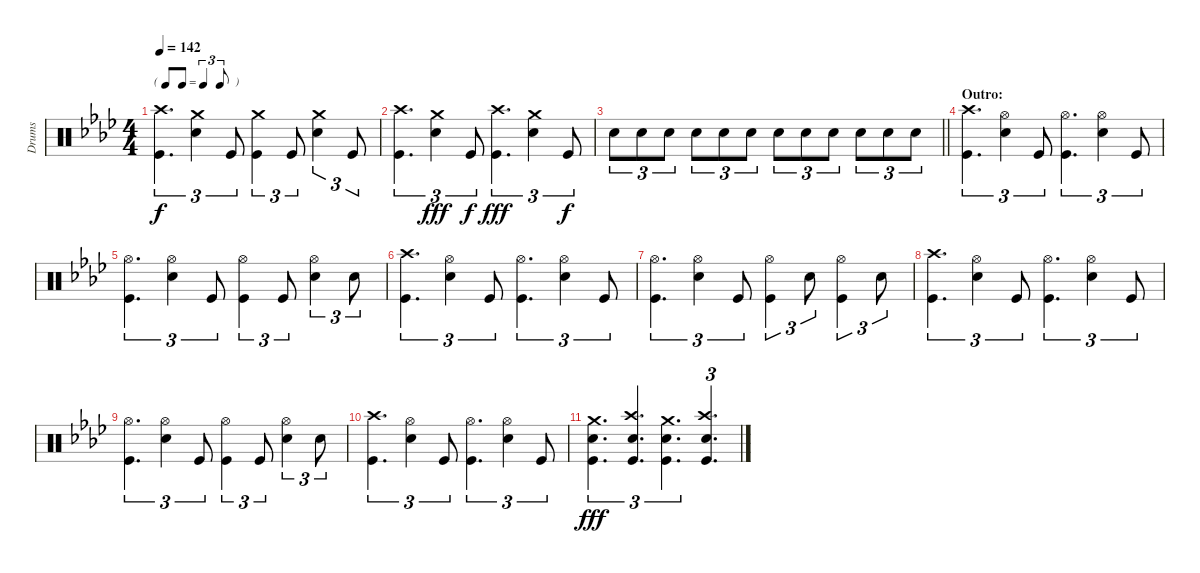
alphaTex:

\track ("Drums" "Drums") {instrument percussion}
\staff {score}
\articulation defaults
\ts (4 4)
\tf triplet8th
\tempo 142
\clef neutral
\ks ab
("Kick (hit)" "Crash high (hit)").4{d tu (3 2) dy f} ("Snare (hit) 2" "Crash medium (hit)").4{tu (3 2)} "Kick (hit)".8{tu (3 2)} ("Kick (hit)" "Crash medium (hit)").4{tu (3 2)} "Kick (hit)".8{tu (3 2)} ("Snare (hit) 2" "Crash medium (hit)").4{tu (3 2)} "Kick (hit)".8{tu (3 2)} |
("Crash high (hit)" "Kick (hit)").4{d tu (3 2)} ("Snare (hit) 2" "Crash medium (hit)").4{tu (3 2) dy fff} "Kick (hit)".8{tu (3 2) dy f} ("Kick (hit)" "Crash high (hit)").4{d tu (3 2) dy fff} ("Snare (hit) 2" "Crash medium (hit)").4{tu (3 2)} "Kick (hit)".8{tu (3 2) dy f} |
\barLineRight lightlight "Snare (hit) 2".8{tu (3 2)} "Snare (hit) 2".8{tu (3 2)} "Snare (hit) 2".8{tu (3 2)} "Snare (hit) 2".8{tu (3 2)} "Snare (hit) 2".8{tu (3 2)} "Snare (hit) 2".8{tu (3 2)} "Snare (hit) 2".8{tu (3 2)} "Snare (hit) 2".8{tu (3 2)} "Snare (hit) 2".8{tu (3 2)} "Snare (hit) 2".8{tu (3 2)} "Snare (hit) 2".8{tu (3 2)} "Snare (hit) 2".8{tu (3 2)}
|
\section ("" "Outro:")
("Crash high (hit)" "Kick (hit)").4{d tu (3 2)} ("Hi-Hat (open)" "Snare (hit) 2").4{tu (3 2)} "Kick (hit)".8{tu (3 2)} ("Kick (hit)" "Hi-Hat (open)").4{d tu (3 2)} ("Snare (hit) 2" "Hi-Hat (open)").4{tu (3 2)} "Kick (hit)".8{tu (3 2)} |
("Kick (hit)" "Hi-Hat (open)").4{d tu (3 2)} ("Hi-Hat (open)" "Snare (hit) 2").4{tu (3 2)} "Kick (hit)".8{tu (3 2)} ("Kick (hit)" "Hi-Hat (open)").4{tu (3 2)} "Kick (hit)".8{tu (3 2)} ("Snare (hit) 2" "Hi-Hat (open)").4{tu (3 2)} "Snare (hit) 2".8{tu (3 2)} |
("Crash high (hit)" "Kick (hit)").4{d tu (3 2)} ("Hi-Hat (open)" "Snare (hit) 2").4{tu (3 2)} "Kick (hit)".8{tu (3 2)} ("Kick (hit)" "Hi-Hat (open)").4{d tu (3 2)} ("Snare (hit) 2" "Hi-Hat (open)").4{tu (3 2)} "Kick (hit)".8{tu (3 2)} |
("Kick (hit)" "Hi-Hat (open)").4{d tu (3 2)} ("Snare (hit) 2" "Hi-Hat (open)").4{tu (3 2)} "Kick (hit)".8{tu (3 2)} ("Kick (hit)" "Hi-Hat (open)").4{tu (3 2)} "Snare (hit) 2".8{tu (3 2)} ("Kick (hit)" "Hi-Hat (open)").4{tu (3 2)} "Snare (hit) 2".8{tu (3 2)} |
("Crash high (hit)" "Kick (hit)").4{d tu (3 2)} ("Hi-Hat (open)" "Snare (hit) 2").4{tu (3 2)} "Kick (hit)".8{tu (3 2)} ("Kick (hit)" "Hi-Hat (open)").4{d tu (3 2)} ("Snare (hit) 2" "Hi-Hat (open)").4{tu (3 2)} "Kick (hit)".8{tu (3 2)} |
("Kick (hit)" "Hi-Hat (open)").4{d tu (3 2)} ("Hi-Hat (open)" "Snare (hit) 2").4{tu (3 2)} "Kick (hit)".8{tu (3 2)} ("Kick (hit)" "Hi-Hat (open)").4{tu (3 2)} "Kick (hit)".8{tu (3 2)} ("Snare (hit) 2" "Hi-Hat (open)").4{tu (3 2)} "Snare (hit) 2".8{tu (3 2)} |
("Crash high (hit)" "Kick (hit)").4{d tu (3 2)} ("Hi-Hat (open)" "Snare (hit) 2").4{tu (3 2)} "Kick (hit)".8{tu (3 2)} ("Kick (hit)" "Hi-Hat (open)").4{d tu (3 2)} ("Snare (hit) 2" "Hi-Hat (open)").4{tu (3 2)} "Kick (hit)".8{tu (3 2)} |
("Crash medium (hit)" "Kick (hit)" "Snare (hit) 2").4{d tu (3 2) dy fff} ("Crash high (hit)" "Kick (hit)" "Snare (hit) 2").4{d tu (3 2)} ("Crash medium (hit)" "Kick (hit)" "Snare (hit) 2").4{d tu (3 2)} ("Crash high (hit)" "Kick (hit)" "Snare (hit) 2").4{d tu (3 2)}
